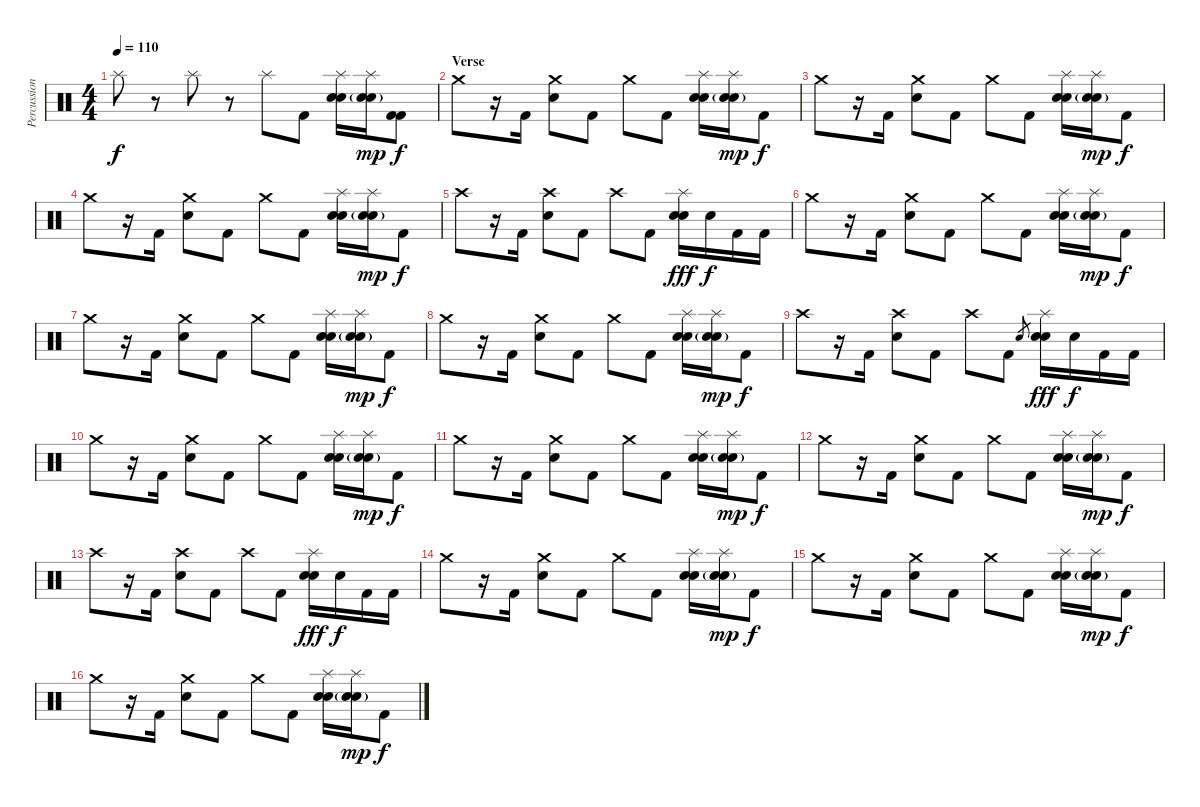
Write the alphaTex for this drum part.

\track ("Percussion" "Percussion") {instrument percussion}
\staff {score}
\articulation defaults
\ts (4 4)
\tempo 110
\clef neutral
\ks c "Splash (hit)".8{dy f}
r.8 "Splash (hit)".8 r.8 "Splash (hit)".8 "Kick (hit) 2".8 ("Hand Clap (hit)" "Splash (hit)" "Snare (hit) 2").16 ("Hand Clap (hit)"{g} "Splash (hit)" "Snare (hit) 2").16{dy mp} ("Kick (hit) 2" "Kick (hit) 2").8{dy f} |
\section ("" "Verse")
"Crash medium (hit)".8 r.16 "Kick (hit) 2".16 ("Crash medium (hit)" "Snare (hit) 2").8 "Kick (hit) 2".8 "Crash medium (hit)".8 "Kick (hit) 2".8 ("Hand Clap (hit)" "Splash (hit)" "Snare (hit) 2").16 ("Hand Clap (hit)"{g} "Splash (hit)" "Snare (hit) 2").16{dy mp} "Kick (hit) 2".8{dy f} |
"Crash medium (hit)".8 r.16 "Kick (hit) 2".16 ("Crash medium (hit)" "Snare (hit) 2").8 "Kick (hit) 2".8 "Crash medium (hit)".8 "Kick (hit) 2".8 ("Hand Clap (hit)" "Splash (hit)" "Snare (hit) 2").16 ("Hand Clap (hit)"{g} "Splash (hit)" "Snare (hit) 2").16{dy mp} "Kick (hit) 2".8{dy f} |
"Crash medium (hit)".8 r.16 "Kick (hit) 2".16 ("Crash medium (hit)" "Snare (hit) 2").8 "Kick (hit) 2".8 "Crash medium (hit)".8 "Kick (hit) 2".8 ("Hand Clap (hit)" "Splash (hit)" "Snare (hit) 2").16 ("Hand Clap (hit)"{g} "Splash (hit)" "Snare (hit) 2").16{dy mp} "Kick (hit) 2".8{dy f} |
"Crash high (hit)".8 r.16 "Kick (hit) 2".16 ("Crash high (hit)" "Snare (hit) 2").8 "Kick (hit) 2".8 "Crash high (hit)".8 "Kick (hit) 2".8 ("Hand Clap (hit)" "Splash (hit)" "Snare (hit) 2").16{dy fff} "Snare (hit) 2".16{dy f} "Kick (hit) 2".16 "Kick (hit) 2".16 |
"Crash medium (hit)".8 r.16 "Kick (hit) 2".16 ("Crash medium (hit)" "Snare (hit) 2").8 "Kick (hit) 2".8 "Crash medium (hit)".8 "Kick (hit) 2".8 ("Hand Clap (hit)" "Splash (hit)" "Snare (hit) 2").16 ("Hand Clap (hit)"{g} "Splash (hit)" "Snare (hit) 2").16{dy mp} "Kick (hit) 2".8{dy f} |
"Crash medium (hit)".8 r.16 "Kick (hit) 2".16 ("Crash medium (hit)" "Snare (hit) 2").8 "Kick (hit) 2".8 "Crash medium (hit)".8 "Kick (hit) 2".8 ("Hand Clap (hit)" "Splash (hit)" "Snare (hit) 2").16 ("Hand Clap (hit)"{g} "Splash (hit)" "Snare (hit) 2").16{dy mp} "Kick (hit) 2".8{dy f} |
"Crash medium (hit)".8 r.16 "Kick (hit) 2".16 ("Crash medium (hit)" "Snare (hit) 2").8 "Kick (hit) 2".8 "Crash medium (hit)".8 "Kick (hit) 2".8 ("Hand Clap (hit)" "Splash (hit)" "Snare (hit) 2").16 ("Hand Clap (hit)"{g} "Splash (hit)" "Snare (hit) 2").16{dy mp} "Kick (hit) 2".8{dy f} |
"Crash high (hit)".8 r.16 "Kick (hit) 2".16 ("Crash high (hit)" "Snare (hit) 2").8 "Kick (hit) 2".8 "Crash high (hit)".8 "Kick (hit) 2".8 "Snare (hit) 2".8{gr} ("Hand Clap (hit)" "Splash (hit)" "Snare (hit) 2").16{dy fff} "Snare (hit) 2".16{dy f} "Kick (hit) 2".16 "Kick (hit) 2".16 |
"Crash medium (hit)".8 r.16 "Kick (hit) 2".16 ("Crash medium (hit)" "Snare (hit) 2").8 "Kick (hit) 2".8 "Crash medium (hit)".8 "Kick (hit) 2".8 ("Hand Clap (hit)" "Splash (hit)" "Snare (hit) 2").16 ("Hand Clap (hit)"{g} "Splash (hit)" "Snare (hit) 2").16{dy mp} "Kick (hit) 2".8{dy f} |
"Crash medium (hit)".8 r.16 "Kick (hit) 2".16 ("Crash medium (hit)" "Snare (hit) 2").8 "Kick (hit) 2".8 "Crash medium (hit)".8 "Kick (hit) 2".8 ("Hand Clap (hit)" "Splash (hit)" "Snare (hit) 2").16 ("Hand Clap (hit)"{g} "Splash (hit)" "Snare (hit) 2").16{dy mp} "Kick (hit) 2".8{dy f} |
"Crash medium (hit)".8 r.16 "Kick (hit) 2".16 ("Crash medium (hit)" "Snare (hit) 2").8 "Kick (hit) 2".8 "Crash medium (hit)".8 "Kick (hit) 2".8 ("Hand Clap (hit)" "Splash (hit)" "Snare (hit) 2").16 ("Hand Clap (hit)"{g} "Splash (hit)" "Snare (hit) 2").16{dy mp} "Kick (hit) 2".8{dy f} |
"Crash high (hit)".8 r.16 "Kick (hit) 2".16 ("Crash high (hit)" "Snare (hit) 2").8 "Kick (hit) 2".8 "Crash high (hit)".8 "Kick (hit) 2".8 ("Hand Clap (hit)" "Splash (hit)" "Snare (hit) 2").16{dy fff} "Snare (hit) 2".16{dy f} "Kick (hit) 2".16 "Kick (hit) 2".16 |
"Crash medium (hit)".8 r.16 "Kick (hit) 2".16 ("Crash medium (hit)" "Snare (hit) 2").8 "Kick (hit) 2".8 "Crash medium (hit)".8 "Kick (hit) 2".8 ("Hand Clap (hit)" "Splash (hit)" "Snare (hit) 2").16 ("Hand Clap (hit)"{g} "Splash (hit)" "Snare (hit) 2").16{dy mp} "Kick (hit) 2".8{dy f} |
"Crash medium (hit)".8 r.16 "Kick (hit) 2".16 ("Crash medium (hit)" "Snare (hit) 2").8 "Kick (hit) 2".8 "Crash medium (hit)".8 "Kick (hit) 2".8 ("Hand Clap (hit)" "Splash (hit)" "Snare (hit) 2").16 ("Hand Clap (hit)"{g} "Splash (hit)" "Snare (hit) 2").16{dy mp} "Kick (hit) 2".8{dy f} |
"Crash medium (hit)".8 r.16 "Kick (hit) 2".16 ("Crash medium (hit)" "Snare (hit) 2").8 "Kick (hit) 2".8 "Crash medium (hit)".8 "Kick (hit) 2".8 ("Hand Clap (hit)" "Splash (hit)" "Snare (hit) 2").16 ("Hand Clap (hit)"{g} "Splash (hit)" "Snare (hit) 2").16{dy mp} "Kick (hit) 2".8{dy f}
